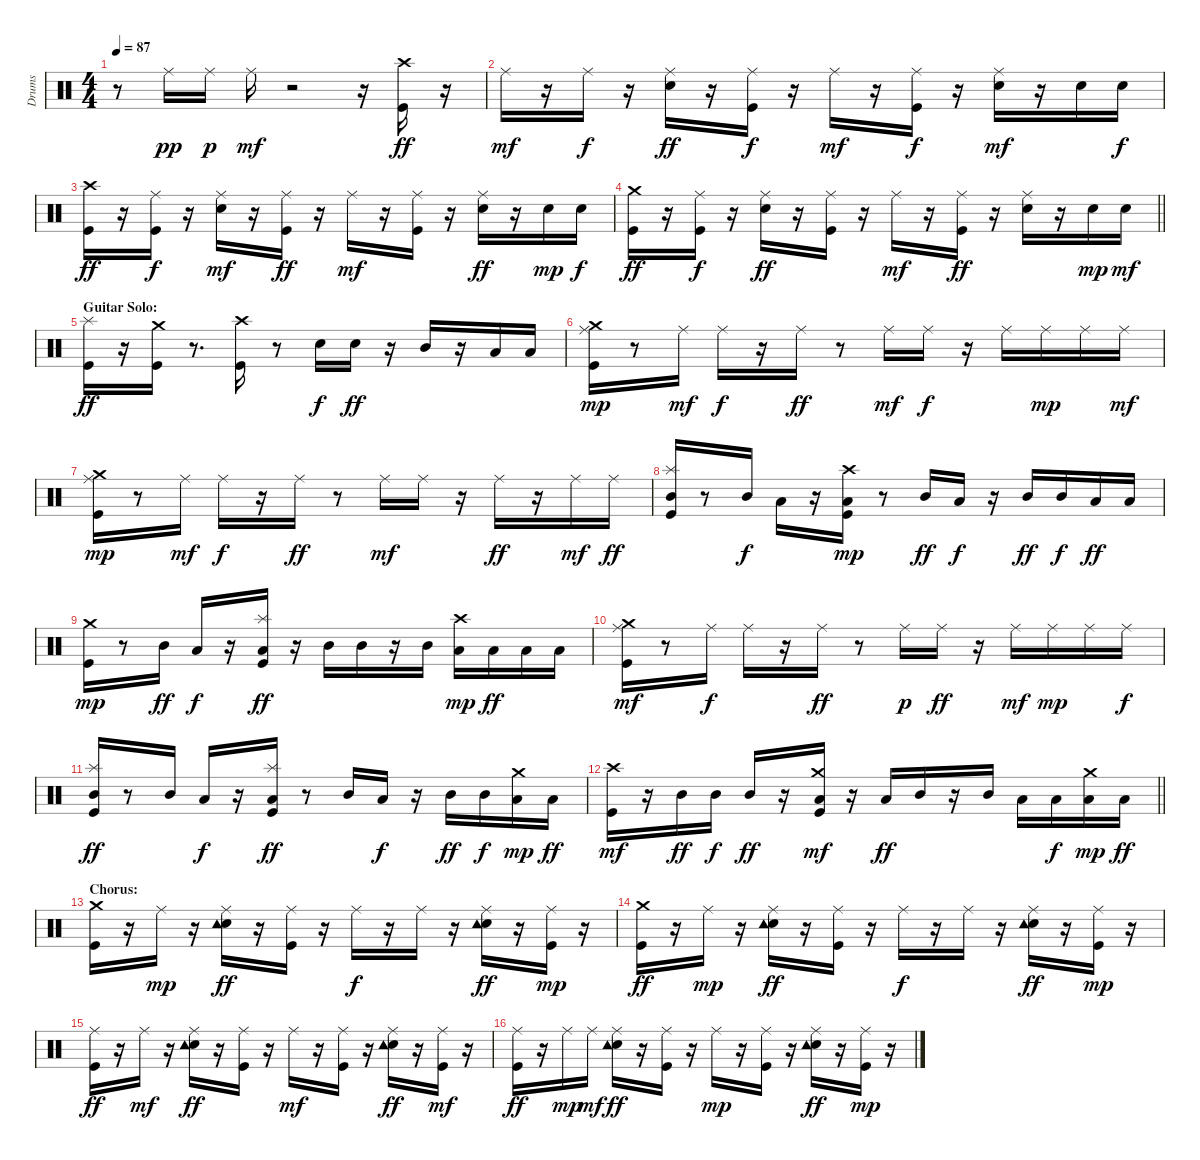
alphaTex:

\track ("Drums" "Drums") {instrument percussion}
\staff {score}
\articulation defaults
\ts (4 4)
\tempo 87
\clef neutral
\ks c
r.8{dy p} "Ride (middle)".16{dy pp} "Ride (middle)".16{dy p} "Ride (middle)".16{dy mf} r.2 r.16 ("Crash high (hit)" "Kick (hit)").16{dy ff} r.16 |
"Ride (middle)".16{dy mf} r.16 "Ride (middle)".16{dy f} r.16 ("Ride (middle)" "Electric Snare (hit)").16{dy ff} r.16 ("Ride (middle)" "Kick (hit)").16{dy f} r.16 "Ride (middle)".16{dy mf} r.16 ("Ride (middle)" "Kick (hit)").16{dy f} r.16 ("Ride (middle)" "Electric Snare (hit)").16{dy mf} r.16 "Electric Snare (hit)".16 "Electric Snare (hit)".16{dy f} |
("Crash high (hit)" "Kick (hit)").16{dy ff} r.16 ("Ride (middle)" "Kick (hit)").16{dy f} r.16 ("Ride (middle)" "Electric Snare (hit)").16{dy mf} r.16 ("Ride (middle)" "Kick (hit)").16{dy ff} r.16 "Ride (middle)".16{dy mf} r.16 ("Ride (middle)" "Kick (hit)").16 r.16 ("Ride (middle)" "Electric Snare (hit)").16{dy ff} r.16 "Electric Snare (hit)".16{dy mp} "Electric Snare (hit)".16{dy f} |
\barLineRight lightlight
("Crash medium (hit)" "Kick (hit)").16{dy ff} r.16 ("Ride (middle)" "Kick (hit)").16{dy f} r.16 ("Ride (middle)" "Electric Snare (hit)").16{dy ff} r.16 ("Ride (middle)" "Kick (hit)").16 r.16 "Ride (middle)".16{dy mf} r.16 ("Ride (middle)" "Kick (hit)").16{dy ff} r.16 ("Ride (middle)" "Electric Snare (hit)").16 r.16 "Electric Snare (hit)".16{dy mp} "Electric Snare (hit)".16{dy mf} |
\section ("" "Guitar Solo:")
("Splash (hit)" "Kick (hit)").16{dy ff} r.16 ("Crash medium (hit)" "Kick (hit)").16 r.8{d} ("Crash high (hit)" "Kick (hit)").16 r.8 "Electric Snare (hit)".16{dy f} "Electric Snare (hit)".16{dy ff} r.16 "Mid Tom (hit)".16 r.16 "Low Tom (hit)".16 "Low Floor Tom (hit)".16 |
("Kick (hit)" "Ride (middle)" "Crash medium (hit)").16{dy mp} r.8 "Ride (middle)".16{dy mf} "Ride (middle)".16{dy f} r.16 "Ride (middle)".16{dy ff} r.8 "Ride (middle)".16{dy mf} "Ride (middle)".16{dy f} r.16 "Ride (middle)".16 "Ride (middle)".16{dy mp} "Ride (middle)".16 "Ride (middle)".16{dy mf} |
("Kick (hit)" "Ride (middle)" "Crash medium (hit)").16{dy mp} r.8 "Ride (middle)".16{dy mf} "Ride (middle)".16{dy f} r.16 "Ride (middle)".16{dy ff} r.8 "Ride (middle)".16{dy mf} "Ride (middle)".16 r.16 "Ride (middle)".16{dy ff} r.16 "Ride (middle)".16{dy mf} "Ride (middle)".16{dy ff} |
("Kick (hit)" "Mid Tom (hit)" "Splash (hit)").16 r.8 "Mid Tom (hit)".16{dy f} "Low Tom (hit)".16 r.16 ("Kick (hit)" "Low Floor Tom (hit)" "Crash high (hit)").16{dy mp} r.8 "Mid Tom (hit)".16{dy ff} "Low Tom (hit)".16{dy f} r.16 "Mid Tom (hit)".16{dy ff} "Mid Tom (hit)".16{dy f} "Low Tom (hit)".16{dy ff} "Low Floor Tom (hit)".16 |
("Kick (hit)" "Crash medium (hit)").16{dy mp} r.8 "Mid Tom (hit)".16{dy ff} "Low Tom (hit)".16{dy f} r.16 ("Low Floor Tom (hit)" "Kick (hit)" "Splash (hit)").16{dy ff} r.16 "Mid Tom (hit)".16 "Mid Tom (hit)".16 r.16 "Mid Tom (hit)".16 ("Low Tom (hit)" "Crash high (hit)").16{dy mp} "Low Tom (hit)".16{dy ff} "Low Tom (hit)".16 "Low Floor Tom (hit)".16 |
("Kick (hit)" "Ride (middle)" "Crash medium (hit)").16{dy mf} r.8 "Ride (middle)".16{dy f} "Ride (middle)".16 r.16 "Ride (middle)".16{dy ff} r.8 "Ride (middle)".16{dy p} "Ride (middle)".16{dy ff} r.16 "Ride (middle)".16{dy mf} "Ride (middle)".16{dy mp} "Ride (middle)".16 "Ride (middle)".16{dy f} |
("Kick (hit)" "Mid Tom (hit)" "Splash (hit)").16{dy ff} r.8 "Mid Tom (hit)".16 "Low Tom (hit)".16{dy f} r.16 ("Kick (hit)" "Low Floor Tom (hit)" "Splash (hit)").16{dy ff} r.8 "Mid Tom (hit)".16 "Low Tom (hit)".16{dy f} r.16 "Mid Tom (hit)".16{dy ff} "Mid Tom (hit)".16{dy f} ("Low Tom (hit)" "Crash medium (hit)").16{dy mp} "Low Floor Tom (hit)".16{dy ff} |
\barLineRight lightlight
("Kick (hit)" "Crash high (hit)").16{dy mf} r.16 "Mid Tom (hit)".16{dy ff} "Mid Tom (hit)".16{dy f} "Mid Tom (hit)".16{dy ff} r.16 ("Low Tom (hit)" "Kick (hit)" "Crash medium (hit)").16{dy mf} r.16 "Low Floor Tom (hit)".16{dy ff} "Mid Tom (hit)".16 r.16 "Mid Tom (hit)".16 "Low Tom (hit)".16 "Low Tom (hit)".16{dy f} ("Low Tom (hit)" "Crash medium (hit)").16{dy mp} "Low Floor Tom (hit)".16{dy ff} |
\section ("" "Chorus:")
("Crash medium (hit)" "Kick (hit)").16 r.16 "Ride (middle)".16{dy mp} r.16 ("Ride (middle)" "Electric Snare (hit)" "Tambourine (hit)").16{dy ff} r.16 ("Ride (middle)" "Kick (hit)").16 r.16 "Ride (middle)".16{dy f} r.16 "Ride (middle)".16 r.16 ("Ride (middle)" "Electric Snare (hit)" "Tambourine (hit)").16{dy ff} r.16 ("Ride (middle)" "Kick (hit)").16{dy mp} r.16 |
("Crash medium (hit)" "Kick (hit)").16{dy ff} r.16 "Ride (middle)".16{dy mp} r.16 ("Ride (middle)" "Electric Snare (hit)" "Tambourine (hit)").16{dy ff} r.16 ("Ride (middle)" "Kick (hit)").16 r.16 "Ride (middle)".16{dy f} r.16 "Ride (middle)".16 r.16 ("Ride (middle)" "Electric Snare (hit)" "Tambourine (hit)").16{dy ff} r.16 ("Ride (middle)" "Kick (hit)").16{dy mp} r.16 |
("Ride (middle)" "Kick (hit)").16{dy ff} r.16 "Ride (middle)".16{dy mf} r.16 ("Ride (middle)" "Electric Snare (hit)" "Tambourine (hit)").16{dy ff} r.16 ("Ride (middle)" "Kick (hit)").16 r.16 "Ride (middle)".16{dy mf} r.16 ("Ride (middle)" "Kick (hit)").16 r.16 ("Ride (middle)" "Electric Snare (hit)" "Tambourine (hit)").16{dy ff} r.16 ("Ride (middle)" "Kick (hit)").16{dy mf} r.16 |
("Ride (middle)" "Kick (hit)").16{dy ff} r.16 "Ride (middle)".16{dy mp} "Ride (middle)".16{dy mf} ("Ride (middle)" "Electric Snare (hit)" "Tambourine (hit)").16{dy ff} r.16 ("Ride (middle)" "Kick (hit)").16 r.16 "Ride (middle)".16{dy mp} r.16 ("Ride (middle)" "Kick (hit)").16 r.16 ("Ride (middle)" "Electric Snare (hit)" "Tambourine (hit)").16{dy ff} r.16 ("Ride (middle)" "Kick (hit)").16{dy mp} r.16
